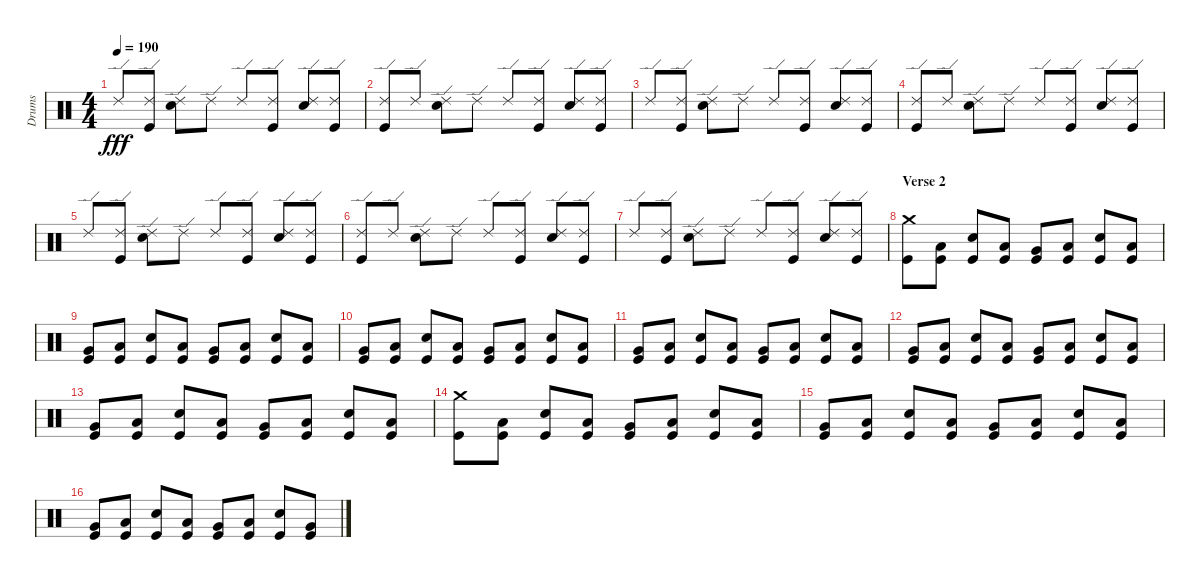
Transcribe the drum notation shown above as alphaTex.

\track ("Drums" "Drums") {instrument percussion}
\staff {score}
\articulation defaults
\ts (4 4)
\tempo 190
\clef neutral
\ks c "Ride (edge) 2".8{dy fff}
("Ride (edge) 2" "Kick (hit)").8 ("Ride (edge) 2" "Snare (hit) 2").8 "Ride (edge) 2".8 "Ride (edge) 2".8 ("Ride (edge) 2" "Kick (hit)").8 ("Ride (edge) 2" "Snare (hit) 2").8 ("Ride (edge) 2" "Kick (hit)").8 |
("Ride (edge) 2" "Kick (hit)").8 "Ride (edge) 2".8 ("Ride (edge) 2" "Snare (hit) 2").8 "Ride (edge) 2".8 "Ride (edge) 2".8 ("Ride (edge) 2" "Kick (hit)").8 ("Ride (edge) 2" "Snare (hit) 2").8 ("Ride (edge) 2" "Kick (hit)").8 |
"Ride (edge) 2".8 ("Ride (edge) 2" "Kick (hit)").8 ("Ride (edge) 2" "Snare (hit) 2").8 "Ride (edge) 2".8 "Ride (edge) 2".8 ("Ride (edge) 2" "Kick (hit)").8 ("Ride (edge) 2" "Snare (hit) 2").8 ("Ride (edge) 2" "Kick (hit)").8 |
("Ride (edge) 2" "Kick (hit)").8 "Ride (edge) 2".8 ("Ride (edge) 2" "Snare (hit) 2").8 "Ride (edge) 2".8 "Ride (edge) 2".8 ("Ride (edge) 2" "Kick (hit)").8 ("Ride (edge) 2" "Snare (hit) 2").8 ("Ride (edge) 2" "Kick (hit)").8 |
"Ride (edge) 2".8 ("Ride (edge) 2" "Kick (hit)").8 ("Ride (edge) 2" "Snare (hit) 2").8 "Ride (edge) 2".8 "Ride (edge) 2".8 ("Ride (edge) 2" "Kick (hit)").8 ("Ride (edge) 2" "Snare (hit) 2").8 ("Ride (edge) 2" "Kick (hit)").8 |
("Ride (edge) 2" "Kick (hit)").8 "Ride (edge) 2".8 ("Ride (edge) 2" "Snare (hit) 2").8 "Ride (edge) 2".8 "Ride (edge) 2".8 ("Ride (edge) 2" "Kick (hit)").8 ("Ride (edge) 2" "Snare (hit) 2").8 ("Ride (edge) 2" "Kick (hit)").8 |
"Ride (edge) 2".8 ("Ride (edge) 2" "Kick (hit)").8 ("Ride (edge) 2" "Snare (hit) 2").8 "Ride (edge) 2".8 "Ride (edge) 2".8 ("Ride (edge) 2" "Kick (hit)").8 ("Ride (edge) 2" "Snare (hit) 2").8 ("Ride (edge) 2" "Kick (hit)").8 |
\section ("" "Verse 2")
("Crash medium (hit)" "Kick (hit)").8 ("Low Tom (hit)" "Kick (hit)").8 ("Snare (hit) 2" "Kick (hit)").8 ("Low Tom (hit)" "Kick (hit)").8 ("Very Low Tom (hit)" "Kick (hit)").8 ("Low Tom (hit)" "Kick (hit)").8 ("Snare (hit) 2" "Kick (hit)").8 ("Low Tom (hit)" "Kick (hit)").8 |
("Very Low Tom (hit)" "Kick (hit)").8 ("Low Tom (hit)" "Kick (hit)").8 ("Snare (hit) 2" "Kick (hit)").8 ("Low Tom (hit)" "Kick (hit)").8 ("Very Low Tom (hit)" "Kick (hit)").8 ("Low Tom (hit)" "Kick (hit)").8 ("Snare (hit) 2" "Kick (hit)").8 ("Low Tom (hit)" "Kick (hit)").8 |
("Very Low Tom (hit)" "Kick (hit)").8 ("Low Tom (hit)" "Kick (hit)").8 ("Snare (hit) 2" "Kick (hit)").8 ("Low Tom (hit)" "Kick (hit)").8 ("Very Low Tom (hit)" "Kick (hit)").8 ("Low Tom (hit)" "Kick (hit)").8 ("Snare (hit) 2" "Kick (hit)").8 ("Low Tom (hit)" "Kick (hit)").8 |
("Very Low Tom (hit)" "Kick (hit)").8 ("Low Tom (hit)" "Kick (hit)").8 ("Snare (hit) 2" "Kick (hit)").8 ("Low Tom (hit)" "Kick (hit)").8 ("Very Low Tom (hit)" "Kick (hit)").8 ("Low Tom (hit)" "Kick (hit)").8 ("Snare (hit) 2" "Kick (hit)").8 ("Low Tom (hit)" "Kick (hit)").8 |
("Very Low Tom (hit)" "Kick (hit)").8 ("Low Tom (hit)" "Kick (hit)").8 ("Snare (hit) 2" "Kick (hit)").8 ("Low Tom (hit)" "Kick (hit)").8 ("Very Low Tom (hit)" "Kick (hit)").8 ("Low Tom (hit)" "Kick (hit)").8 ("Snare (hit) 2" "Kick (hit)").8 ("Low Tom (hit)" "Kick (hit)").8 |
("Very Low Tom (hit)" "Kick (hit)").8 ("Low Tom (hit)" "Kick (hit)").8 ("Snare (hit) 2" "Kick (hit)").8 ("Low Tom (hit)" "Kick (hit)").8 ("Very Low Tom (hit)" "Kick (hit)").8 ("Low Tom (hit)" "Kick (hit)").8 ("Snare (hit) 2" "Kick (hit)").8 ("Low Tom (hit)" "Kick (hit)").8 |
("Crash medium (hit)" "Kick (hit)").8 ("Low Tom (hit)" "Kick (hit)").8 ("Snare (hit) 2" "Kick (hit)").8 ("Low Tom (hit)" "Kick (hit)").8 ("Very Low Tom (hit)" "Kick (hit)").8 ("Low Tom (hit)" "Kick (hit)").8 ("Snare (hit) 2" "Kick (hit)").8 ("Low Tom (hit)" "Kick (hit)").8 |
("Very Low Tom (hit)" "Kick (hit)").8 ("Low Tom (hit)" "Kick (hit)").8 ("Snare (hit) 2" "Kick (hit)").8 ("Low Tom (hit)" "Kick (hit)").8 ("Very Low Tom (hit)" "Kick (hit)").8 ("Low Tom (hit)" "Kick (hit)").8 ("Snare (hit) 2" "Kick (hit)").8 ("Low Tom (hit)" "Kick (hit)").8 |
("Very Low Tom (hit)" "Kick (hit)").8 ("Low Tom (hit)" "Kick (hit)").8 ("Snare (hit) 2" "Kick (hit)").8 ("Low Tom (hit)" "Kick (hit)").8 ("Very Low Tom (hit)" "Kick (hit)").8 ("Low Tom (hit)" "Kick (hit)").8 ("Snare (hit) 2" "Kick (hit)").8 ("Very Low Tom (hit)" "Kick (hit)").8
